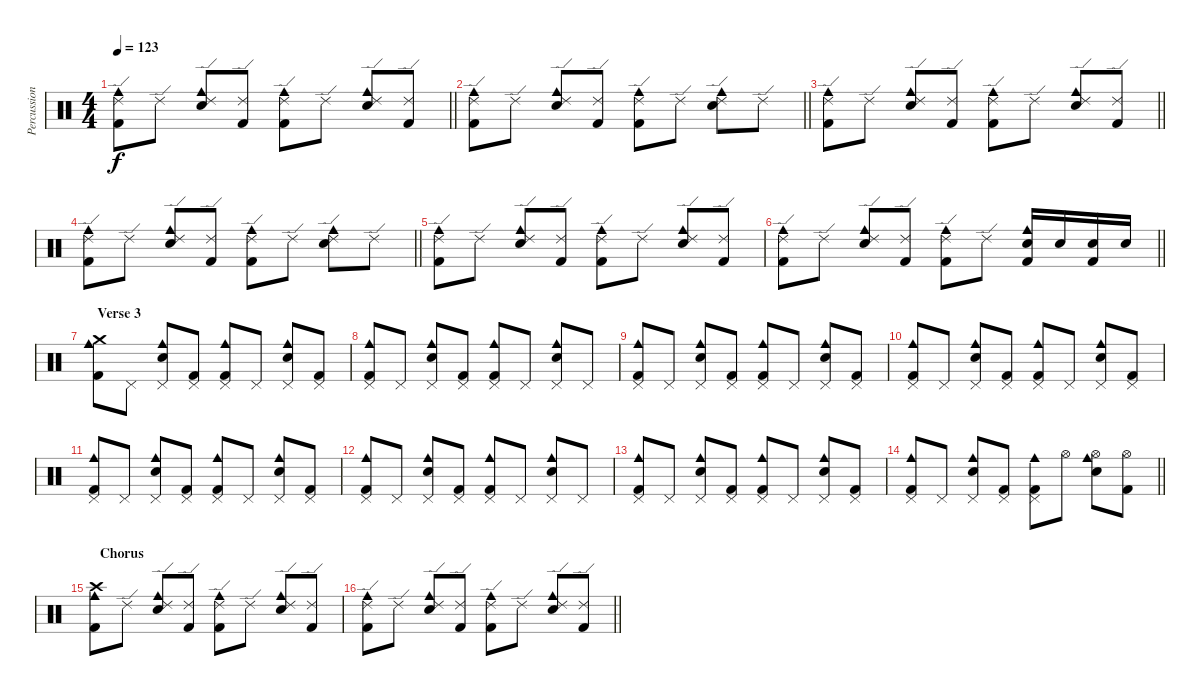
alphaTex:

\track ("Percussion" "Percussion") {instrument percussion}
\staff {score}
\articulation defaults
\ts (4 4)
\tempo 123
\clef neutral
\barLineRight lightlight
\ks c
("Ride (edge) 2" "Kick (hit) 2" "Cowbell medium (hit)").8{dy f} "Ride (edge) 2".8 ("Ride (edge) 2" "Electric Snare (hit)" "Cowbell medium (hit)").8 ("Ride (edge) 2" "Kick (hit) 2").8 ("Ride (edge) 2" "Kick (hit) 2" "Cowbell medium (hit)").8 "Ride (edge) 2".8 ("Ride (edge) 2" "Electric Snare (hit)" "Cowbell medium (hit)").8 ("Ride (edge) 2" "Kick (hit) 2").8 |
\barLineRight lightlight
("Ride (edge) 2" "Kick (hit) 2" "Cowbell medium (hit)").8 "Ride (edge) 2".8 ("Ride (edge) 2" "Electric Snare (hit)" "Cowbell medium (hit)").8 ("Ride (edge) 2" "Kick (hit) 2").8 ("Ride (edge) 2" "Kick (hit) 2" "Cowbell medium (hit)").8 "Ride (edge) 2".8 ("Ride (edge) 2" "Electric Snare (hit)" "Cowbell medium (hit)").8 "Ride (edge) 2".8 |
\barLineRight lightlight
("Ride (edge) 2" "Kick (hit) 2" "Cowbell medium (hit)").8 "Ride (edge) 2".8 ("Ride (edge) 2" "Electric Snare (hit)" "Cowbell medium (hit)").8 ("Ride (edge) 2" "Kick (hit) 2").8 ("Ride (edge) 2" "Kick (hit) 2" "Cowbell medium (hit)").8 "Ride (edge) 2".8 ("Ride (edge) 2" "Electric Snare (hit)" "Cowbell medium (hit)").8 ("Ride (edge) 2" "Kick (hit) 2").8 |
\barLineRight lightlight
("Ride (edge) 2" "Kick (hit) 2" "Cowbell medium (hit)").8 "Ride (edge) 2".8 ("Ride (edge) 2" "Electric Snare (hit)" "Cowbell medium (hit)").8 ("Ride (edge) 2" "Kick (hit) 2").8 ("Ride (edge) 2" "Kick (hit) 2" "Cowbell medium (hit)").8 "Ride (edge) 2".8 ("Ride (edge) 2" "Electric Snare (hit)" "Cowbell medium (hit)").8 "Ride (edge) 2".8 |
("Ride (edge) 2" "Kick (hit) 2" "Cowbell medium (hit)").8 "Ride (edge) 2".8 ("Ride (edge) 2" "Electric Snare (hit)" "Cowbell medium (hit)").8 ("Ride (edge) 2" "Kick (hit) 2").8 ("Ride (edge) 2" "Kick (hit) 2" "Cowbell medium (hit)").8 "Ride (edge) 2".8 ("Ride (edge) 2" "Electric Snare (hit)" "Cowbell medium (hit)").8 ("Ride (edge) 2" "Kick (hit) 2").8 |
\barLineRight lightlight
("Ride (edge) 2" "Kick (hit) 2" "Cowbell medium (hit)").8 "Ride (edge) 2".8 ("Ride (edge) 2" "Electric Snare (hit)" "Cowbell medium (hit)").8 ("Ride (edge) 2" "Kick (hit) 2").8 ("Ride (edge) 2" "Kick (hit) 2" "Cowbell medium (hit)").8 "Ride (edge) 2".8 ("Kick (hit) 2" "Electric Snare (hit)" "Cowbell medium (hit)").16 "Electric Snare (hit)".16 ("Kick (hit) 2" "Electric Snare (hit)").16 "Electric Snare (hit)".16 |
\section ("" "    Verse 3")
("Crash medium (hit)" "Kick (hit) 2" "Cowbell medium (hit)").8 "Pedal Hi-Hat (hit)".8 ("Pedal Hi-Hat (hit)" "Electric Snare (hit)" "Cowbell medium (hit)").8 ("Pedal Hi-Hat (hit)" "Kick (hit) 2").8 ("Pedal Hi-Hat (hit)" "Kick (hit) 2" "Cowbell medium (hit)").8 "Pedal Hi-Hat (hit)".8 ("Pedal Hi-Hat (hit)" "Electric Snare (hit)" "Cowbell medium (hit)").8 ("Pedal Hi-Hat (hit)" "Kick (hit) 2").8 |
("Pedal Hi-Hat (hit)" "Kick (hit) 2" "Cowbell medium (hit)").8 "Pedal Hi-Hat (hit)".8 ("Pedal Hi-Hat (hit)" "Electric Snare (hit)" "Cowbell medium (hit)").8 ("Pedal Hi-Hat (hit)" "Kick (hit) 2").8 ("Pedal Hi-Hat (hit)" "Kick (hit) 2" "Cowbell medium (hit)").8 "Pedal Hi-Hat (hit)".8 ("Pedal Hi-Hat (hit)" "Electric Snare (hit)" "Cowbell medium (hit)").8 "Pedal Hi-Hat (hit)".8 |
("Pedal Hi-Hat (hit)" "Kick (hit) 2" "Cowbell medium (hit)").8 "Pedal Hi-Hat (hit)".8 ("Pedal Hi-Hat (hit)" "Electric Snare (hit)" "Cowbell medium (hit)").8 ("Pedal Hi-Hat (hit)" "Kick (hit) 2").8 ("Pedal Hi-Hat (hit)" "Kick (hit) 2" "Cowbell medium (hit)").8 "Pedal Hi-Hat (hit)".8 ("Pedal Hi-Hat (hit)" "Electric Snare (hit)" "Cowbell medium (hit)").8 ("Pedal Hi-Hat (hit)" "Kick (hit) 2").8 |
("Pedal Hi-Hat (hit)" "Kick (hit) 2" "Cowbell medium (hit)").8 "Pedal Hi-Hat (hit)".8 ("Pedal Hi-Hat (hit)" "Electric Snare (hit)" "Cowbell medium (hit)").8 ("Pedal Hi-Hat (hit)" "Kick (hit) 2").8 ("Pedal Hi-Hat (hit)" "Kick (hit) 2" "Cowbell medium (hit)").8 "Pedal Hi-Hat (hit)".8 ("Pedal Hi-Hat (hit)" "Electric Snare (hit)" "Cowbell medium (hit)").8 ("Pedal Hi-Hat (hit)" "Kick (hit) 2").8 |
("Pedal Hi-Hat (hit)" "Kick (hit) 2" "Cowbell medium (hit)").8 "Pedal Hi-Hat (hit)".8 ("Pedal Hi-Hat (hit)" "Electric Snare (hit)" "Cowbell medium (hit)").8 ("Pedal Hi-Hat (hit)" "Kick (hit) 2").8 ("Pedal Hi-Hat (hit)" "Kick (hit) 2" "Cowbell medium (hit)").8 "Pedal Hi-Hat (hit)".8 ("Pedal Hi-Hat (hit)" "Electric Snare (hit)" "Cowbell medium (hit)").8 ("Pedal Hi-Hat (hit)" "Kick (hit) 2").8 |
("Pedal Hi-Hat (hit)" "Kick (hit) 2" "Cowbell medium (hit)").8 "Pedal Hi-Hat (hit)".8 ("Pedal Hi-Hat (hit)" "Electric Snare (hit)" "Cowbell medium (hit)").8 ("Pedal Hi-Hat (hit)" "Kick (hit) 2").8 ("Pedal Hi-Hat (hit)" "Kick (hit) 2" "Cowbell medium (hit)").8 "Pedal Hi-Hat (hit)".8 ("Pedal Hi-Hat (hit)" "Electric Snare (hit)" "Cowbell medium (hit)").8 "Pedal Hi-Hat (hit)".8 |
("Pedal Hi-Hat (hit)" "Kick (hit) 2" "Cowbell medium (hit)").8 "Pedal Hi-Hat (hit)".8 ("Pedal Hi-Hat (hit)" "Electric Snare (hit)" "Cowbell medium (hit)").8 ("Pedal Hi-Hat (hit)" "Kick (hit) 2").8 ("Pedal Hi-Hat (hit)" "Kick (hit) 2" "Cowbell medium (hit)").8 "Pedal Hi-Hat (hit)".8 ("Pedal Hi-Hat (hit)" "Electric Snare (hit)" "Cowbell medium (hit)").8 ("Pedal Hi-Hat (hit)" "Kick (hit) 2").8 |
\barLineRight lightlight
("Pedal Hi-Hat (hit)" "Kick (hit) 2" "Cowbell medium (hit)").8 "Pedal Hi-Hat (hit)".8 ("Pedal Hi-Hat (hit)" "Electric Snare (hit)" "Cowbell medium (hit)").8 ("Pedal Hi-Hat (hit)" "Kick (hit) 2").8 ("Pedal Hi-Hat (hit)" "Kick (hit) 2" "Cowbell medium (hit)").8 "Hi-Hat (open)".8 ("Hi-Hat (open)" "Electric Snare (hit)" "Cowbell medium (hit)").8 ("Hi-Hat (open)" "Kick (hit) 2").8 |
\section ("" "   Chorus ")
("Crash high (hit)" "Kick (hit) 2" "Cowbell medium (hit)").8 "Ride (edge) 2".8 ("Ride (edge) 2" "Electric Snare (hit)" "Cowbell medium (hit)").8 ("Ride (edge) 2" "Kick (hit) 2").8 ("Ride (edge) 2" "Kick (hit) 2" "Cowbell medium (hit)").8 "Ride (edge) 2".8 ("Ride (edge) 2" "Electric Snare (hit)" "Cowbell medium (hit)").8 ("Ride (edge) 2" "Kick (hit) 2").8 |
\barLineRight lightlight
("Ride (edge) 2" "Kick (hit) 2" "Cowbell medium (hit)").8 "Ride (edge) 2".8 ("Ride (edge) 2" "Electric Snare (hit)" "Cowbell medium (hit)").8 ("Ride (edge) 2" "Kick (hit) 2").8 ("Ride (edge) 2" "Kick (hit) 2" "Cowbell medium (hit)").8 "Ride (edge) 2".8 ("Ride (edge) 2" "Electric Snare (hit)" "Cowbell medium (hit)").8 ("Ride (edge) 2" "Kick (hit) 2").8
